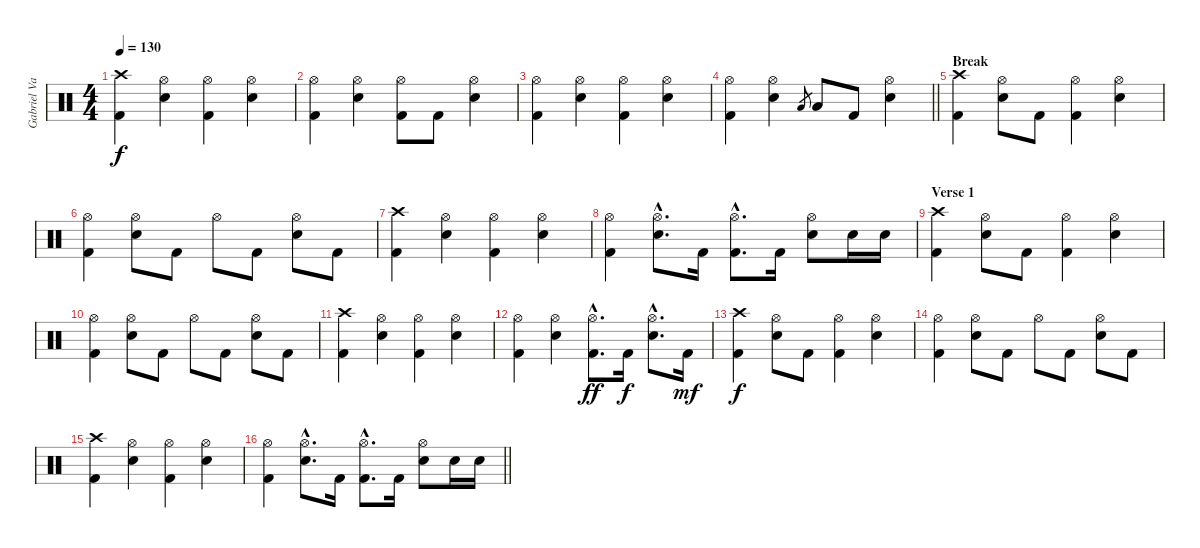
\track ("Gabriel Valerio" "Gabriel Va") {instrument percussion}
\staff {score}
\articulation defaults
\ts (4 4)
\tempo 130
\clef neutral
\ks c
("Crash high (hit)" "Kick (hit) 2").4{dy f} ("Hi-Hat (open)" "Snare (hit) 2").4 ("Hi-Hat (open)" "Kick (hit) 2").4 ("Hi-Hat (open)" "Snare (hit) 2").4 |
("Hi-Hat (open)" "Kick (hit) 2").4 ("Hi-Hat (open)" "Snare (hit) 2").4 ("Hi-Hat (open)" "Kick (hit) 2").8 "Kick (hit) 2".8 ("Hi-Hat (open)" "Snare (hit) 2").4 |
("Hi-Hat (open)" "Kick (hit) 2").4 ("Hi-Hat (open)" "Snare (hit) 2").4 ("Hi-Hat (open)" "Kick (hit) 2").4 ("Hi-Hat (open)" "Snare (hit) 2").4 |
\barLineRight lightlight
("Hi-Hat (open)" "Kick (hit) 2").4 ("Hi-Hat (open)" "Snare (hit) 2").4 "Low Tom (hit)".8{gr} "Low Tom (hit)".8 "Kick (hit) 2".8 ("Hi-Hat (open)" "Snare (hit) 2").4 |
\section ("" "Break")
("Crash high (hit)" "Kick (hit) 2").4 ("Hi-Hat (open)" "Snare (hit) 2").8 "Kick (hit) 2".8 ("Hi-Hat (open)" "Kick (hit) 2").4 ("Hi-Hat (open)" "Snare (hit) 2").4 |
("Hi-Hat (open)" "Kick (hit) 2").4 ("Hi-Hat (open)" "Snare (hit) 2").8 "Kick (hit) 2".8 "Hi-Hat (open)".8 "Kick (hit) 2".8 ("Hi-Hat (open)" "Snare (hit) 2").8 "Kick (hit) 2".8 |
("Crash high (hit)" "Kick (hit) 2").4 ("Hi-Hat (open)" "Snare (hit) 2").4 ("Hi-Hat (open)" "Kick (hit) 2").4 ("Hi-Hat (open)" "Snare (hit) 2").4 |
("Hi-Hat (open)" "Kick (hit) 2").4 ("Hi-Hat (open)"{hac} "Snare (hit) 2"{hac}).8{d} "Kick (hit) 2".16 ("Hi-Hat (open)"{hac} "Kick (hit) 2"{hac}).8{d} "Kick (hit) 2".16 ("Hi-Hat (open)" "Snare (hit) 2").8 "Snare (hit) 2".16 "Snare (hit) 2".16 |
\section ("" "Verse 1")
("Crash high (hit)" "Kick (hit) 2").4 ("Hi-Hat (open)" "Snare (hit) 2").8 "Kick (hit) 2".8 ("Hi-Hat (open)" "Kick (hit) 2").4 ("Hi-Hat (open)" "Snare (hit) 2").4 |
("Hi-Hat (open)" "Kick (hit) 2").4 ("Hi-Hat (open)" "Snare (hit) 2").8 "Kick (hit) 2".8 "Hi-Hat (open)".8 "Kick (hit) 2".8 ("Hi-Hat (open)" "Snare (hit) 2").8 "Kick (hit) 2".8 |
("Crash high (hit)" "Kick (hit) 2").4 ("Hi-Hat (open)" "Snare (hit) 2").4 ("Hi-Hat (open)" "Kick (hit) 2").4 ("Hi-Hat (open)" "Snare (hit) 2").4 |
("Hi-Hat (open)" "Kick (hit) 2").4 ("Hi-Hat (open)" "Snare (hit) 2").4 ("Hi-Hat (open)"{hac} "Kick (hit) 2"{hac}).8{d dy ff} "Kick (hit) 2".16{dy f} ("Hi-Hat (open)"{hac} "Snare (hit) 2"{hac}).8{d} "Kick (hit) 2".16{dy mf} |
("Crash high (hit)" "Kick (hit) 2").4{dy f} ("Hi-Hat (open)" "Snare (hit) 2").8 "Kick (hit) 2".8 ("Hi-Hat (open)" "Kick (hit) 2").4 ("Hi-Hat (open)" "Snare (hit) 2").4 |
("Hi-Hat (open)" "Kick (hit) 2").4 ("Hi-Hat (open)" "Snare (hit) 2").8 "Kick (hit) 2".8 "Hi-Hat (open)".8 "Kick (hit) 2".8 ("Hi-Hat (open)" "Snare (hit) 2").8 "Kick (hit) 2".8 |
("Crash high (hit)" "Kick (hit) 2").4 ("Hi-Hat (open)" "Snare (hit) 2").4 ("Hi-Hat (open)" "Kick (hit) 2").4 ("Hi-Hat (open)" "Snare (hit) 2").4 |
\barLineRight lightlight
("Hi-Hat (open)" "Kick (hit) 2").4 ("Hi-Hat (open)"{hac} "Snare (hit) 2"{hac}).8{d} "Kick (hit) 2".16 ("Hi-Hat (open)"{hac} "Kick (hit) 2"{hac}).8{d} "Kick (hit) 2".16 ("Hi-Hat (open)" "Snare (hit) 2").8 "Snare (hit) 2".16 "Snare (hit) 2".16
